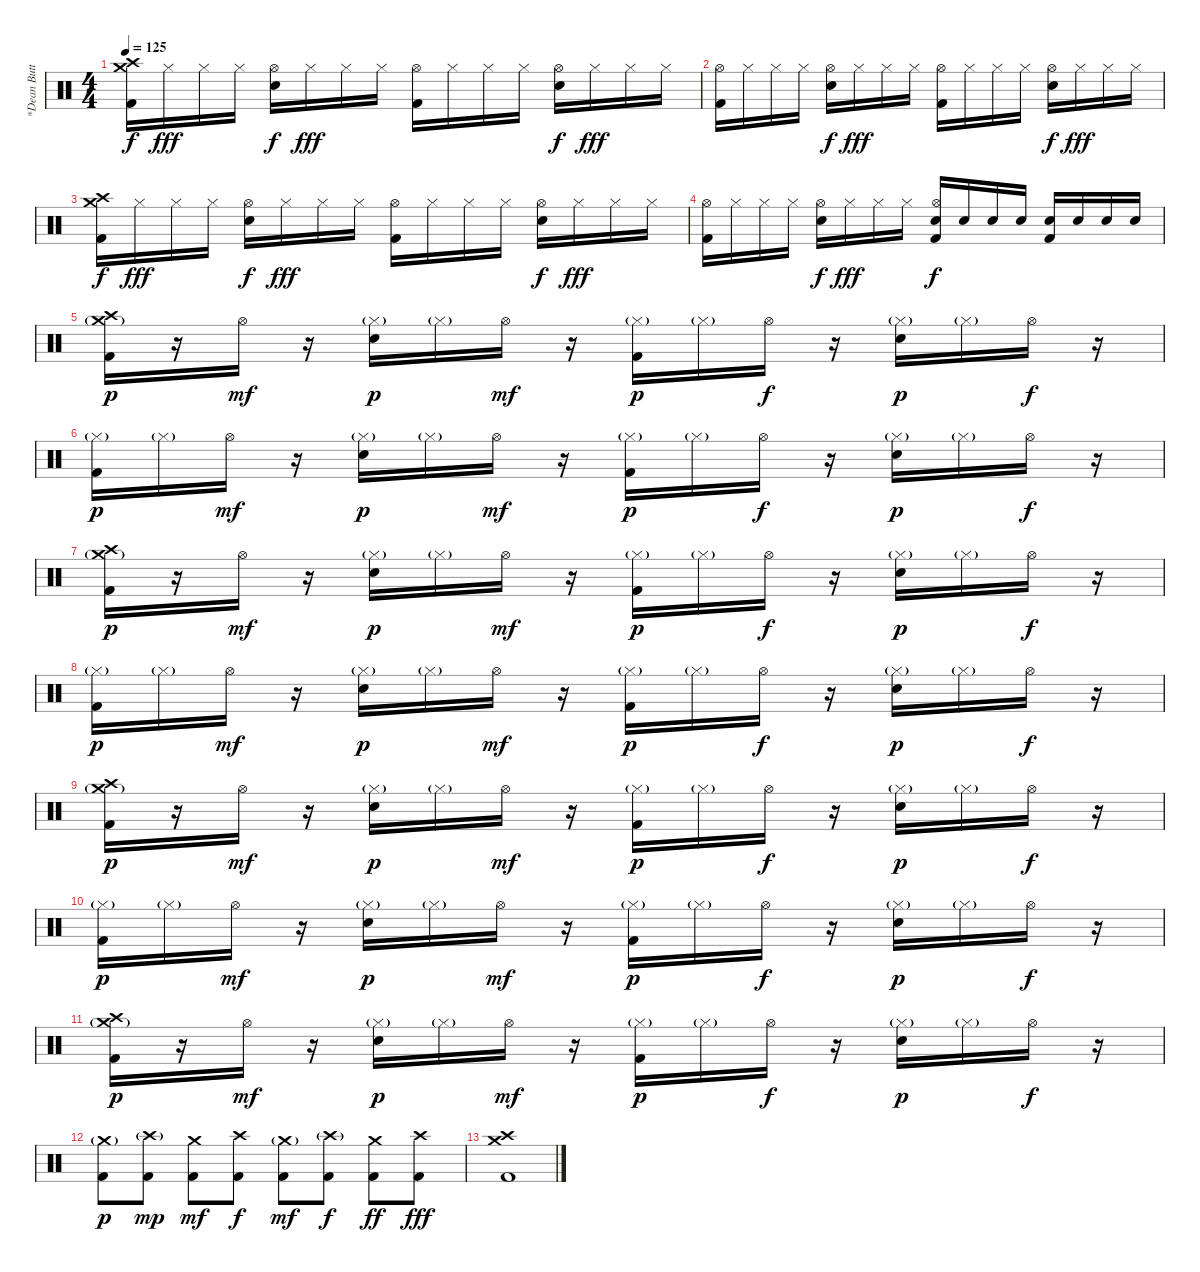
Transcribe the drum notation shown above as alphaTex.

\track ("*Dean Butterworth (Drum)" "*Dean Butt") {instrument percussion}
\staff {score}
\articulation defaults
\ts (4 4)
\tempo 125
\clef neutral
\ks c
("Crash high (hit)" "Crash medium (hit)" "Kick (hit) 2").16{dy f} "Hi-Hat (closed)".16{dy fff} "Hi-Hat (closed)".16 "Hi-Hat (closed)".16 ("Hi-Hat (open)" "Electric Snare (hit)").16{dy f} "Hi-Hat (closed)".16{dy fff} "Hi-Hat (closed)".16 "Hi-Hat (closed)".16 ("Hi-Hat (open)" "Kick (hit) 2").16 "Hi-Hat (closed)".16 "Hi-Hat (closed)".16 "Hi-Hat (closed)".16 ("Hi-Hat (open)" "Electric Snare (hit)").16{dy f} "Hi-Hat (closed)".16{dy fff} "Hi-Hat (closed)".16 "Hi-Hat (closed)".16 |
("Hi-Hat (open)" "Kick (hit) 2").16 "Hi-Hat (closed)".16 "Hi-Hat (closed)".16 "Hi-Hat (closed)".16 ("Hi-Hat (open)" "Electric Snare (hit)").16{dy f} "Hi-Hat (closed)".16{dy fff} "Hi-Hat (closed)".16 "Hi-Hat (closed)".16 ("Hi-Hat (open)" "Kick (hit) 2").16 "Hi-Hat (closed)".16 "Hi-Hat (closed)".16 "Hi-Hat (closed)".16 ("Hi-Hat (open)" "Electric Snare (hit)").16{dy f} "Hi-Hat (closed)".16{dy fff} "Hi-Hat (closed)".16 "Hi-Hat (closed)".16 |
("Crash high (hit)" "Crash medium (hit)" "Kick (hit) 2").16{dy f} "Hi-Hat (closed)".16{dy fff} "Hi-Hat (closed)".16 "Hi-Hat (closed)".16 ("Hi-Hat (open)" "Electric Snare (hit)").16{dy f} "Hi-Hat (closed)".16{dy fff} "Hi-Hat (closed)".16 "Hi-Hat (closed)".16 ("Hi-Hat (open)" "Kick (hit) 2").16 "Hi-Hat (closed)".16 "Hi-Hat (closed)".16 "Hi-Hat (closed)".16 ("Hi-Hat (open)" "Electric Snare (hit)").16{dy f} "Hi-Hat (closed)".16{dy fff} "Hi-Hat (closed)".16 "Hi-Hat (closed)".16 |
("Hi-Hat (open)" "Kick (hit) 2").16 "Hi-Hat (closed)".16 "Hi-Hat (closed)".16 "Hi-Hat (closed)".16 ("Hi-Hat (open)" "Electric Snare (hit)").16{dy f} "Hi-Hat (closed)".16{dy fff} "Hi-Hat (closed)".16 "Hi-Hat (closed)".16 ("Hi-Hat (open)" "Electric Snare (hit)" "Kick (hit) 2").16{dy f} "Electric Snare (hit)".16 "Electric Snare (hit)".16 "Electric Snare (hit)".16 ("Electric Snare (hit)" "Kick (hit) 2").16 "Electric Snare (hit)".16 "Electric Snare (hit)".16 "Electric Snare (hit)".16 |
("Crash high (hit)" "Crash medium (hit)"{g} "Kick (hit) 2").16{dy p} r.16 "Hi-Hat (open)".16{dy mf} r.16 ("Hi-Hat (closed)"{g} "Electric Snare (hit)").16{dy p} "Hi-Hat (closed)"{g}.16 "Hi-Hat (open)".16{dy mf} r.16 ("Hi-Hat (closed)"{g} "Kick (hit) 2").16{dy p} "Hi-Hat (closed)"{g}.16 "Hi-Hat (open)".16{dy f} r.16 ("Hi-Hat (closed)"{g} "Electric Snare (hit)").16{dy p} "Hi-Hat (closed)"{g}.16 "Hi-Hat (open)".16{dy f} r.16 |
("Hi-Hat (closed)"{g} "Kick (hit) 2").16{dy p} "Hi-Hat (closed)"{g}.16 "Hi-Hat (open)".16{dy mf} r.16 ("Hi-Hat (closed)"{g} "Electric Snare (hit)").16{dy p} "Hi-Hat (closed)"{g}.16 "Hi-Hat (open)".16{dy mf} r.16 ("Hi-Hat (closed)"{g} "Kick (hit) 2").16{dy p} "Hi-Hat (closed)"{g}.16 "Hi-Hat (open)".16{dy f} r.16 ("Hi-Hat (closed)"{g} "Electric Snare (hit)").16{dy p} "Hi-Hat (closed)"{g}.16 "Hi-Hat (open)".16{dy f} r.16 |
("Crash high (hit)" "Crash medium (hit)"{g} "Kick (hit) 2").16{dy p} r.16 "Hi-Hat (open)".16{dy mf} r.16 ("Hi-Hat (closed)"{g} "Electric Snare (hit)").16{dy p} "Hi-Hat (closed)"{g}.16 "Hi-Hat (open)".16{dy mf} r.16 ("Hi-Hat (closed)"{g} "Kick (hit) 2").16{dy p} "Hi-Hat (closed)"{g}.16 "Hi-Hat (open)".16{dy f} r.16 ("Hi-Hat (closed)"{g} "Electric Snare (hit)").16{dy p} "Hi-Hat (closed)"{g}.16 "Hi-Hat (open)".16{dy f} r.16 |
("Hi-Hat (closed)"{g} "Kick (hit) 2").16{dy p} "Hi-Hat (closed)"{g}.16 "Hi-Hat (open)".16{dy mf} r.16 ("Hi-Hat (closed)"{g} "Electric Snare (hit)").16{dy p} "Hi-Hat (closed)"{g}.16 "Hi-Hat (open)".16{dy mf} r.16 ("Hi-Hat (closed)"{g} "Kick (hit) 2").16{dy p} "Hi-Hat (closed)"{g}.16 "Hi-Hat (open)".16{dy f} r.16 ("Hi-Hat (closed)"{g} "Electric Snare (hit)").16{dy p} "Hi-Hat (closed)"{g}.16 "Hi-Hat (open)".16{dy f} r.16 |
("Crash high (hit)" "Crash medium (hit)"{g} "Kick (hit) 2").16{dy p} r.16 "Hi-Hat (open)".16{dy mf} r.16 ("Hi-Hat (closed)"{g} "Electric Snare (hit)").16{dy p} "Hi-Hat (closed)"{g}.16 "Hi-Hat (open)".16{dy mf} r.16 ("Hi-Hat (closed)"{g} "Kick (hit) 2").16{dy p} "Hi-Hat (closed)"{g}.16 "Hi-Hat (open)".16{dy f} r.16 ("Hi-Hat (closed)"{g} "Electric Snare (hit)").16{dy p} "Hi-Hat (closed)"{g}.16 "Hi-Hat (open)".16{dy f} r.16 |
("Hi-Hat (closed)"{g} "Kick (hit) 2").16{dy p} "Hi-Hat (closed)"{g}.16 "Hi-Hat (open)".16{dy mf} r.16 ("Hi-Hat (closed)"{g} "Electric Snare (hit)").16{dy p} "Hi-Hat (closed)"{g}.16 "Hi-Hat (open)".16{dy mf} r.16 ("Hi-Hat (closed)"{g} "Kick (hit) 2").16{dy p} "Hi-Hat (closed)"{g}.16 "Hi-Hat (open)".16{dy f} r.16 ("Hi-Hat (closed)"{g} "Electric Snare (hit)").16{dy p} "Hi-Hat (closed)"{g}.16 "Hi-Hat (open)".16{dy f} r.16 |
("Crash high (hit)" "Crash medium (hit)"{g} "Kick (hit) 2").16{dy p} r.16 "Hi-Hat (open)".16{dy mf} r.16 ("Hi-Hat (closed)"{g} "Electric Snare (hit)").16{dy p} "Hi-Hat (closed)"{g}.16 "Hi-Hat (open)".16{dy mf} r.16 ("Hi-Hat (closed)"{g} "Kick (hit) 2").16{dy p} "Hi-Hat (closed)"{g}.16 "Hi-Hat (open)".16{dy f} r.16 ("Hi-Hat (closed)"{g} "Electric Snare (hit)").16{dy p} "Hi-Hat (closed)"{g}.16 "Hi-Hat (open)".16{dy f} r.16 |
("Crash medium (hit)"{g} "Kick (hit) 2").8{dy p} ("Crash high (hit)"{g} "Kick (hit) 2").8{dy mp} ("Crash medium (hit)" "Kick (hit) 2").8{dy mf} ("Crash high (hit)" "Kick (hit) 2").8{dy f} ("Crash medium (hit)"{g} "Kick (hit) 2").8{dy mf} ("Crash high (hit)"{g} "Kick (hit) 2").8{dy f} ("Crash medium (hit)" "Kick (hit) 2").8{dy ff} ("Crash high (hit)" "Kick (hit) 2").8{dy fff} |
("Crash high (hit)" "Crash medium (hit)" "Kick (hit) 2").1
